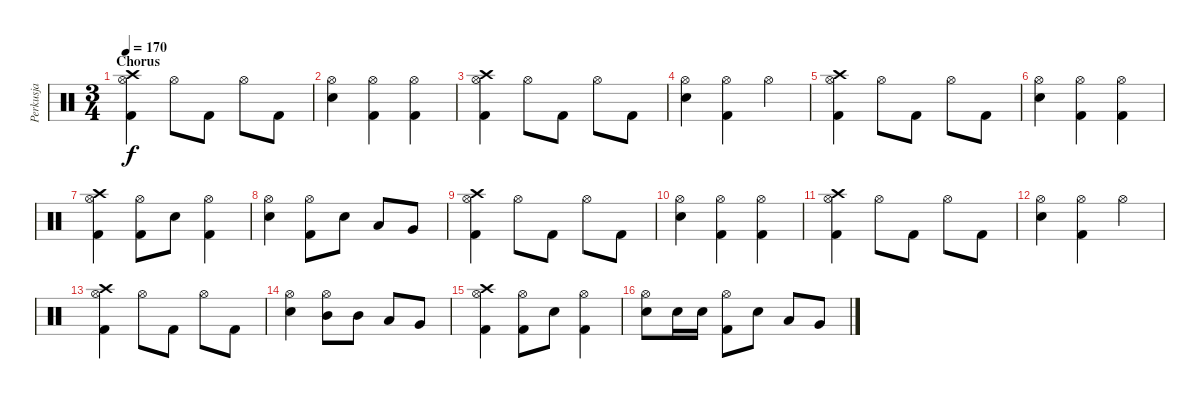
\track ("Perkusja" "Perkusja") {instrument percussion}
\staff {score}
\articulation defaults
\ts (3 4)
\section ("" "Chorus")
\tempo 170
\clef neutral
\ks c
("Hi-Hat (open)" "Kick (hit) 2" "Crash high (hit)").4{dy f} "Hi-Hat (open)".8 "Kick (hit) 2".8 "Hi-Hat (open)".8 "Kick (hit) 2".8 |
("Hi-Hat (open)" "Snare (hit) 2").4 ("Hi-Hat (open)" "Kick (hit) 2").4 ("Hi-Hat (open)" "Kick (hit) 2").4 |
("Hi-Hat (open)" "Kick (hit) 2" "Crash high (hit)").4 "Hi-Hat (open)".8 "Kick (hit) 2".8 "Hi-Hat (open)".8 "Kick (hit) 2".8 |
("Hi-Hat (open)" "Snare (hit) 2").4 ("Hi-Hat (open)" "Kick (hit) 2").4 "Hi-Hat (open)".4 |
("Hi-Hat (open)" "Kick (hit) 2" "Crash high (hit)").4 "Hi-Hat (open)".8 "Kick (hit) 2".8 "Hi-Hat (open)".8 "Kick (hit) 2".8 |
("Hi-Hat (open)" "Snare (hit) 2").4 ("Hi-Hat (open)" "Kick (hit) 2").4 ("Hi-Hat (open)" "Kick (hit) 2").4 |
("Hi-Hat (open)" "Kick (hit) 2" "Crash high (hit)").4 ("Hi-Hat (open)" "Kick (hit) 2").8 "Snare (hit) 2".8 ("Hi-Hat (open)" "Kick (hit) 2").4 |
("Hi-Hat (open)" "Snare (hit) 2").4 ("Hi-Hat (open)" "Kick (hit) 2").8 "Snare (hit) 2".8 "Low Tom (hit)".8 "Very Low Tom (hit)".8 |
("Hi-Hat (open)" "Kick (hit) 2" "Crash high (hit)").4 "Hi-Hat (open)".8 "Kick (hit) 2".8 "Hi-Hat (open)".8 "Kick (hit) 2".8 |
("Hi-Hat (open)" "Snare (hit) 2").4 ("Hi-Hat (open)" "Kick (hit) 2").4 ("Hi-Hat (open)" "Kick (hit) 2").4 |
("Hi-Hat (open)" "Kick (hit) 2" "Crash high (hit)").4 "Hi-Hat (open)".8 "Kick (hit) 2".8 "Hi-Hat (open)".8 "Kick (hit) 2".8 |
("Hi-Hat (open)" "Snare (hit) 2").4 ("Hi-Hat (open)" "Kick (hit) 2").4 "Hi-Hat (open)".4 |
("Hi-Hat (open)" "Kick (hit) 2" "Crash high (hit)").4 "Hi-Hat (open)".8 "Kick (hit) 2".8 "Hi-Hat (open)".8 "Kick (hit) 2".8 |
("Hi-Hat (open)" "Snare (hit) 2").4 ("Hi-Hat (open)" "Mid Tom (hit)").8 "Mid Tom (hit)".8 "Low Tom (hit)".8 "Very Low Tom (hit)".8 |
("Hi-Hat (open)" "Kick (hit) 2" "Crash high (hit)").4 ("Hi-Hat (open)" "Kick (hit) 2").8 "Snare (hit) 2".8 ("Hi-Hat (open)" "Kick (hit) 2").4 |
("Hi-Hat (open)" "Snare (hit) 2").8 "Snare (hit) 2".16 "Snare (hit) 2".16 ("Hi-Hat (open)" "Kick (hit) 2").8 "Snare (hit) 2".8 "Low Tom (hit)".8 "Very Low Tom (hit)".8
